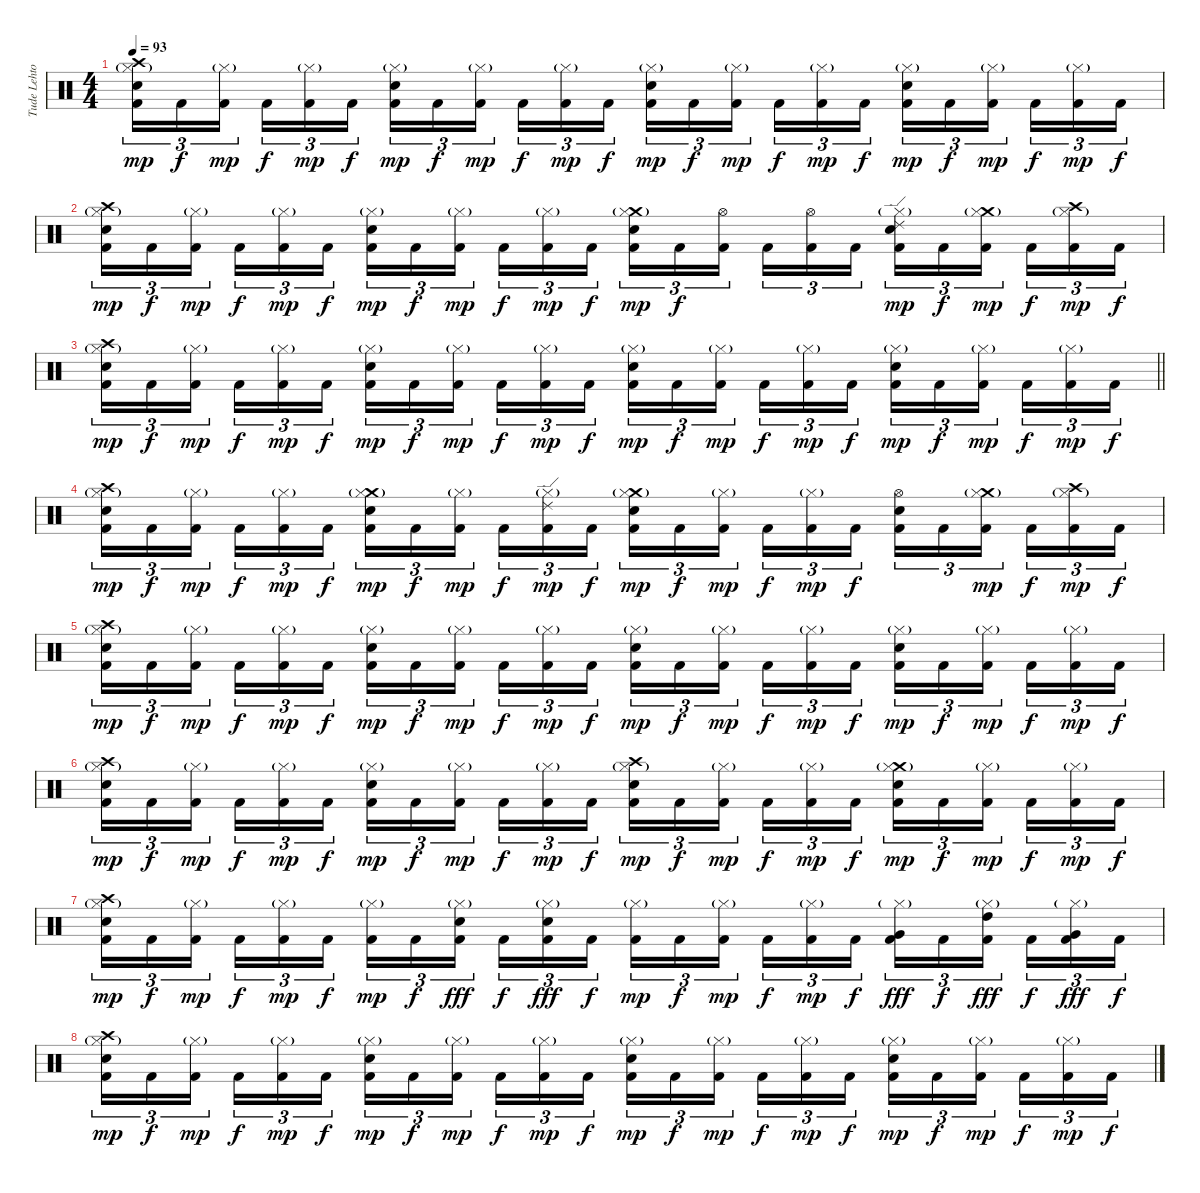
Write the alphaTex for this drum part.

\track ("Tude Lehtonen" "Tude Lehto") {instrument percussion}
\staff {score}
\articulation defaults
\ts (4 4)
\tempo 93
\clef neutral
\ks c
("Crash high (hit)" "Hi-Hat (closed)"{g} "Electric Snare (hit)" "Kick (hit) 2").16{tu (3 2) dy mp} "Kick (hit) 2".16{tu (3 2) dy f} ("Hi-Hat (closed)"{g} "Kick (hit) 2").16{tu (3 2) dy mp} "Kick (hit) 2".16{tu (3 2) dy f} ("Hi-Hat (closed)"{g} "Kick (hit) 2").16{tu (3 2) dy mp} "Kick (hit) 2".16{tu (3 2) dy f} ("Hi-Hat (closed)"{g} "Electric Snare (hit)" "Kick (hit) 2").16{tu (3 2) dy mp} "Kick (hit) 2".16{tu (3 2) dy f} ("Hi-Hat (closed)"{g} "Kick (hit) 2").16{tu (3 2) dy mp} "Kick (hit) 2".16{tu (3 2) dy f} ("Hi-Hat (closed)"{g} "Kick (hit) 2").16{tu (3 2) dy mp} "Kick (hit) 2".16{tu (3 2) dy f} ("Hi-Hat (closed)"{g} "Electric Snare (hit)" "Kick (hit) 2").16{tu (3 2) dy mp} "Kick (hit) 2".16{tu (3 2) dy f} ("Hi-Hat (closed)"{g} "Kick (hit) 2").16{tu (3 2) dy mp} "Kick (hit) 2".16{tu (3 2) dy f} ("Hi-Hat (closed)"{g} "Kick (hit) 2").16{tu (3 2) dy mp} "Kick (hit) 2".16{tu (3 2) dy f} ("Hi-Hat (closed)"{g} "Electric Snare (hit)" "Kick (hit) 2").16{tu (3 2) dy mp} "Kick (hit) 2".16{tu (3 2) dy f} ("Hi-Hat (closed)"{g} "Kick (hit) 2").16{tu (3 2) dy mp} "Kick (hit) 2".16{tu (3 2) dy f} ("Hi-Hat (closed)"{g} "Kick (hit) 2").16{tu (3 2) dy mp} "Kick (hit) 2".16{tu (3 2) dy f} |
("Crash high (hit)" "Hi-Hat (closed)"{g} "Electric Snare (hit)" "Kick (hit) 2").16{tu (3 2) dy mp} "Kick (hit) 2".16{tu (3 2) dy f} ("Hi-Hat (closed)"{g} "Kick (hit) 2").16{tu (3 2) dy mp} "Kick (hit) 2".16{tu (3 2) dy f} ("Hi-Hat (closed)"{g} "Kick (hit) 2").16{tu (3 2) dy mp} "Kick (hit) 2".16{tu (3 2) dy f} ("Hi-Hat (closed)"{g} "Electric Snare (hit)" "Kick (hit) 2").16{tu (3 2) dy mp} "Kick (hit) 2".16{tu (3 2) dy f} ("Hi-Hat (closed)"{g} "Kick (hit) 2").16{tu (3 2) dy mp} "Kick (hit) 2".16{tu (3 2) dy f} ("Hi-Hat (closed)"{g} "Kick (hit) 2").16{tu (3 2) dy mp} "Kick (hit) 2".16{tu (3 2) dy f} ("Crash medium (hit)" "Hi-Hat (closed)"{g} "Electric Snare (hit)" "Kick (hit) 2").16{tu (3 2) dy mp} "Kick (hit) 2".16{tu (3 2) dy f} ("Hi-Hat (open)" "Kick (hit) 2").16{tu (3 2)} "Kick (hit) 2".16{tu (3 2)} ("Hi-Hat (open)" "Kick (hit) 2").16{tu (3 2)} "Kick (hit) 2".16{tu (3 2)} ("Ride (edge) 2" "Hi-Hat (closed)"{g} "Electric Snare (hit)" "Kick (hit) 2").16{tu (3 2) dy mp} "Kick (hit) 2".16{tu (3 2) dy f} ("Crash medium (hit)" "Hi-Hat (closed)"{g} "Kick (hit) 2").16{tu (3 2) dy mp} "Kick (hit) 2".16{tu (3 2) dy f} ("Crash high (hit)" "Hi-Hat (closed)"{g} "Kick (hit) 2").16{tu (3 2) dy mp} "Kick (hit) 2".16{tu (3 2) dy f} |
\barLineRight lightlight
("Crash high (hit)" "Hi-Hat (closed)"{g} "Electric Snare (hit)" "Kick (hit) 2").16{tu (3 2) dy mp} "Kick (hit) 2".16{tu (3 2) dy f} ("Hi-Hat (closed)"{g} "Kick (hit) 2").16{tu (3 2) dy mp} "Kick (hit) 2".16{tu (3 2) dy f} ("Hi-Hat (closed)"{g} "Kick (hit) 2").16{tu (3 2) dy mp} "Kick (hit) 2".16{tu (3 2) dy f} ("Hi-Hat (closed)"{g} "Electric Snare (hit)" "Kick (hit) 2").16{tu (3 2) dy mp} "Kick (hit) 2".16{tu (3 2) dy f} ("Hi-Hat (closed)"{g} "Kick (hit) 2").16{tu (3 2) dy mp} "Kick (hit) 2".16{tu (3 2) dy f} ("Hi-Hat (closed)"{g} "Kick (hit) 2").16{tu (3 2) dy mp} "Kick (hit) 2".16{tu (3 2) dy f} ("Hi-Hat (closed)"{g} "Electric Snare (hit)" "Kick (hit) 2").16{tu (3 2) dy mp} "Kick (hit) 2".16{tu (3 2) dy f} ("Hi-Hat (closed)"{g} "Kick (hit) 2").16{tu (3 2) dy mp} "Kick (hit) 2".16{tu (3 2) dy f} ("Hi-Hat (closed)"{g} "Kick (hit) 2").16{tu (3 2) dy mp} "Kick (hit) 2".16{tu (3 2) dy f} ("Hi-Hat (closed)"{g} "Electric Snare (hit)" "Kick (hit) 2").16{tu (3 2) dy mp} "Kick (hit) 2".16{tu (3 2) dy f} ("Hi-Hat (closed)"{g} "Kick (hit) 2").16{tu (3 2) dy mp} "Kick (hit) 2".16{tu (3 2) dy f} ("Hi-Hat (closed)"{g} "Kick (hit) 2").16{tu (3 2) dy mp} "Kick (hit) 2".16{tu (3 2) dy f} |
("Crash high (hit)" "Hi-Hat (closed)"{g} "Electric Snare (hit)" "Kick (hit) 2").16{tu (3 2) dy mp} "Kick (hit) 2".16{tu (3 2) dy f} ("Hi-Hat (closed)"{g} "Kick (hit) 2").16{tu (3 2) dy mp} "Kick (hit) 2".16{tu (3 2) dy f} ("Hi-Hat (closed)"{g} "Kick (hit) 2").16{tu (3 2) dy mp} "Kick (hit) 2".16{tu (3 2) dy f} ("Crash medium (hit)" "Hi-Hat (closed)"{g} "Electric Snare (hit)" "Kick (hit) 2").16{tu (3 2) dy mp} "Kick (hit) 2".16{tu (3 2) dy f} ("Hi-Hat (closed)"{g} "Kick (hit) 2").16{tu (3 2) dy mp} "Kick (hit) 2".16{tu (3 2) dy f} ("Ride (edge) 2" "Hi-Hat (closed)"{g} "Kick (hit) 2").16{tu (3 2) dy mp} "Kick (hit) 2".16{tu (3 2) dy f} ("Crash medium (hit)" "Hi-Hat (closed)"{g} "Electric Snare (hit)" "Kick (hit) 2").16{tu (3 2) dy mp} "Kick (hit) 2".16{tu (3 2) dy f} ("Hi-Hat (closed)"{g} "Kick (hit) 2").16{tu (3 2) dy mp} "Kick (hit) 2".16{tu (3 2) dy f} ("Hi-Hat (closed)"{g} "Kick (hit) 2").16{tu (3 2) dy mp} "Kick (hit) 2".16{tu (3 2) dy f} ("Hi-Hat (open)" "Electric Snare (hit)" "Kick (hit) 2").16{tu (3 2)} "Kick (hit) 2".16{tu (3 2)} ("Crash medium (hit)" "Hi-Hat (closed)"{g} "Kick (hit) 2").16{tu (3 2) dy mp} "Kick (hit) 2".16{tu (3 2) dy f} ("Crash high (hit)" "Hi-Hat (closed)"{g} "Kick (hit) 2").16{tu (3 2) dy mp} "Kick (hit) 2".16{tu (3 2) dy f} |
("Crash high (hit)" "Hi-Hat (closed)"{g} "Electric Snare (hit)" "Kick (hit) 2").16{tu (3 2) dy mp} "Kick (hit) 2".16{tu (3 2) dy f} ("Hi-Hat (closed)"{g} "Kick (hit) 2").16{tu (3 2) dy mp} "Kick (hit) 2".16{tu (3 2) dy f} ("Hi-Hat (closed)"{g} "Kick (hit) 2").16{tu (3 2) dy mp} "Kick (hit) 2".16{tu (3 2) dy f} ("Hi-Hat (closed)"{g} "Electric Snare (hit)" "Kick (hit) 2").16{tu (3 2) dy mp} "Kick (hit) 2".16{tu (3 2) dy f} ("Hi-Hat (closed)"{g} "Kick (hit) 2").16{tu (3 2) dy mp} "Kick (hit) 2".16{tu (3 2) dy f} ("Hi-Hat (closed)"{g} "Kick (hit) 2").16{tu (3 2) dy mp} "Kick (hit) 2".16{tu (3 2) dy f} ("Hi-Hat (closed)"{g} "Electric Snare (hit)" "Kick (hit) 2").16{tu (3 2) dy mp} "Kick (hit) 2".16{tu (3 2) dy f} ("Hi-Hat (closed)"{g} "Kick (hit) 2").16{tu (3 2) dy mp} "Kick (hit) 2".16{tu (3 2) dy f} ("Hi-Hat (closed)"{g} "Kick (hit) 2").16{tu (3 2) dy mp} "Kick (hit) 2".16{tu (3 2) dy f} ("Hi-Hat (closed)"{g} "Electric Snare (hit)" "Kick (hit) 2").16{tu (3 2) dy mp} "Kick (hit) 2".16{tu (3 2) dy f} ("Hi-Hat (closed)"{g} "Kick (hit) 2").16{tu (3 2) dy mp} "Kick (hit) 2".16{tu (3 2) dy f} ("Hi-Hat (closed)"{g} "Kick (hit) 2").16{tu (3 2) dy mp} "Kick (hit) 2".16{tu (3 2) dy f} |
("Crash high (hit)" "Hi-Hat (closed)"{g} "Electric Snare (hit)" "Kick (hit) 2").16{tu (3 2) dy mp} "Kick (hit) 2".16{tu (3 2) dy f} ("Hi-Hat (closed)"{g} "Kick (hit) 2").16{tu (3 2) dy mp} "Kick (hit) 2".16{tu (3 2) dy f} ("Hi-Hat (closed)"{g} "Kick (hit) 2").16{tu (3 2) dy mp} "Kick (hit) 2".16{tu (3 2) dy f} ("Hi-Hat (closed)"{g} "Electric Snare (hit)" "Kick (hit) 2").16{tu (3 2) dy mp} "Kick (hit) 2".16{tu (3 2) dy f} ("Hi-Hat (closed)"{g} "Kick (hit) 2").16{tu (3 2) dy mp} "Kick (hit) 2".16{tu (3 2) dy f} ("Hi-Hat (closed)"{g} "Kick (hit) 2").16{tu (3 2) dy mp} "Kick (hit) 2".16{tu (3 2) dy f} ("Crash high (hit)" "Hi-Hat (closed)"{g} "Electric Snare (hit)" "Kick (hit) 2").16{tu (3 2) dy mp} "Kick (hit) 2".16{tu (3 2) dy f} ("Hi-Hat (closed)"{g} "Kick (hit) 2").16{tu (3 2) dy mp} "Kick (hit) 2".16{tu (3 2) dy f} ("Hi-Hat (closed)"{g} "Kick (hit) 2").16{tu (3 2) dy mp} "Kick (hit) 2".16{tu (3 2) dy f} ("Crash medium (hit)" "Hi-Hat (closed)"{g} "Electric Snare (hit)" "Kick (hit) 2").16{tu (3 2) dy mp} "Kick (hit) 2".16{tu (3 2) dy f} ("Hi-Hat (closed)"{g} "Kick (hit) 2").16{tu (3 2) dy mp} "Kick (hit) 2".16{tu (3 2) dy f} ("Hi-Hat (closed)"{g} "Kick (hit) 2").16{tu (3 2) dy mp} "Kick (hit) 2".16{tu (3 2) dy f} |
("Crash high (hit)" "Hi-Hat (closed)"{g} "Electric Snare (hit)" "Kick (hit) 2").16{tu (3 2) dy mp} "Kick (hit) 2".16{tu (3 2) dy f} ("Hi-Hat (closed)"{g} "Kick (hit) 2").16{tu (3 2) dy mp} "Kick (hit) 2".16{tu (3 2) dy f} ("Hi-Hat (closed)"{g} "Kick (hit) 2").16{tu (3 2) dy mp} "Kick (hit) 2".16{tu (3 2) dy f} ("Hi-Hat (closed)"{g} "Kick (hit) 2").16{tu (3 2) dy mp} "Kick (hit) 2".16{tu (3 2) dy f} ("Hi-Hat (closed)"{g} "Electric Snare (hit)" "Kick (hit) 2").16{tu (3 2) dy fff} "Kick (hit) 2".16{tu (3 2) dy f} ("Hi-Hat (closed)"{g} "Electric Snare (hit)" "Kick (hit) 2").16{tu (3 2) dy fff} "Kick (hit) 2".16{tu (3 2) dy f} ("Hi-Hat (closed)"{g} "Kick (hit) 2").16{tu (3 2) dy mp} "Kick (hit) 2".16{tu (3 2) dy f} ("Hi-Hat (closed)"{g} "Kick (hit) 2").16{tu (3 2) dy mp} "Kick (hit) 2".16{tu (3 2) dy f} ("Hi-Hat (closed)"{g} "Kick (hit) 2").16{tu (3 2) dy mp} "Kick (hit) 2".16{tu (3 2) dy f} ("Hi-Hat (closed)"{g} "Very Low Tom (hit)" "Kick (hit) 2").16{tu (3 2) dy fff} "Kick (hit) 2".16{tu (3 2) dy f} ("Hi-Hat (closed)"{g} "High Tom (hit)" "Kick (hit) 2").16{tu (3 2) dy fff} "Kick (hit) 2".16{tu (3 2) dy f} ("Hi-Hat (closed)"{g} "Very Low Tom (hit)" "Kick (hit) 2").16{tu (3 2) dy fff} "Kick (hit) 2".16{tu (3 2) dy f} |
("Crash high (hit)" "Hi-Hat (closed)"{g} "Electric Snare (hit)" "Kick (hit) 2").16{tu (3 2) dy mp} "Kick (hit) 2".16{tu (3 2) dy f} ("Hi-Hat (closed)"{g} "Kick (hit) 2").16{tu (3 2) dy mp} "Kick (hit) 2".16{tu (3 2) dy f} ("Hi-Hat (closed)"{g} "Kick (hit) 2").16{tu (3 2) dy mp} "Kick (hit) 2".16{tu (3 2) dy f} ("Hi-Hat (closed)"{g} "Electric Snare (hit)" "Kick (hit) 2").16{tu (3 2) dy mp} "Kick (hit) 2".16{tu (3 2) dy f} ("Hi-Hat (closed)"{g} "Kick (hit) 2").16{tu (3 2) dy mp} "Kick (hit) 2".16{tu (3 2) dy f} ("Hi-Hat (closed)"{g} "Kick (hit) 2").16{tu (3 2) dy mp} "Kick (hit) 2".16{tu (3 2) dy f} ("Hi-Hat (closed)"{g} "Electric Snare (hit)" "Kick (hit) 2").16{tu (3 2) dy mp} "Kick (hit) 2".16{tu (3 2) dy f} ("Hi-Hat (closed)"{g} "Kick (hit) 2").16{tu (3 2) dy mp} "Kick (hit) 2".16{tu (3 2) dy f} ("Hi-Hat (closed)"{g} "Kick (hit) 2").16{tu (3 2) dy mp} "Kick (hit) 2".16{tu (3 2) dy f} ("Hi-Hat (closed)"{g} "Electric Snare (hit)" "Kick (hit) 2").16{tu (3 2) dy mp} "Kick (hit) 2".16{tu (3 2) dy f} ("Hi-Hat (closed)"{g} "Kick (hit) 2").16{tu (3 2) dy mp} "Kick (hit) 2".16{tu (3 2) dy f} ("Hi-Hat (closed)"{g} "Kick (hit) 2").16{tu (3 2) dy mp} "Kick (hit) 2".16{tu (3 2) dy f}
